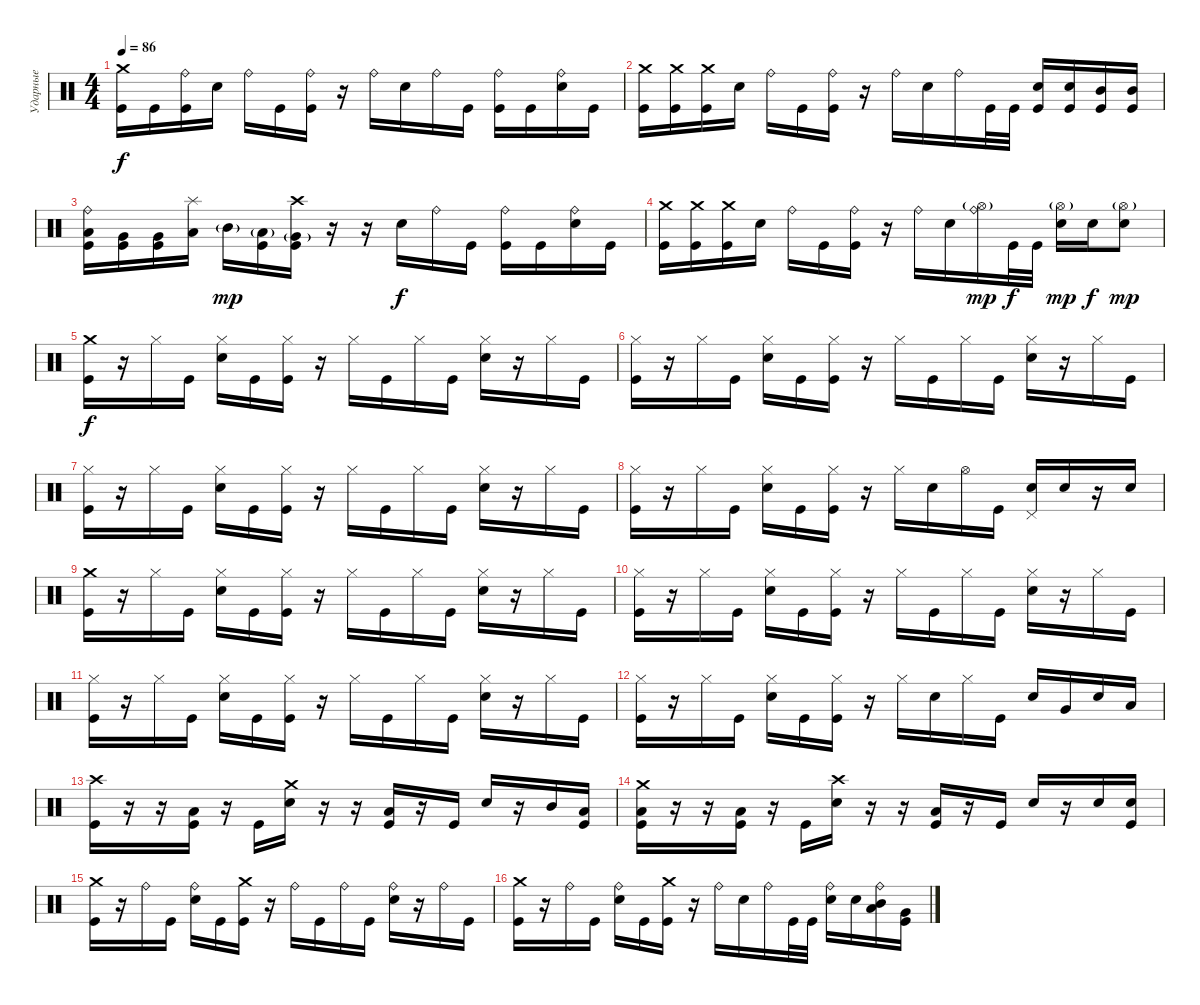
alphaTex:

\track ("Ударные" "Ударные") {instrument percussion}
\staff {score}
\articulation defaults
\ts (4 4)
\tempo 86
\clef neutral
\ks c
("Crash medium (hit)" "Kick (hit)").16{dy f} "Kick (hit)".16 ("Ride (bell)" "Kick (hit)").16 "Snare (hit) 2".16 "Ride (bell)".16 "Kick (hit)".16 ("Ride (bell)" "Kick (hit)").16 r.16 "Ride (bell)".16 "Snare (hit) 2".16 "Ride (bell)".16 "Kick (hit)".16 ("Ride (bell)" "Kick (hit)").16 "Kick (hit)".16 ("Ride (bell)" "Snare (hit) 2").16 "Kick (hit)".16 |
("Crash medium (hit)" "Kick (hit)").16 ("Crash medium (hit)" "Kick (hit)").16 ("Crash medium (hit)" "Kick (hit)").16 "Snare (hit) 2".16 "Ride (bell)".16 "Kick (hit)".16 ("Ride (bell)" "Kick (hit)").16 r.16 "Ride (bell)".16 "Snare (hit) 2".16 "Ride (bell)".16 "Kick (hit)".32 "Kick (hit)".32 ("Snare (hit) 2" "Kick (hit)").16 ("Snare (hit) 2" "Kick (hit)").16 ("Mid Tom (hit)" "Kick (hit)").16 ("Mid Tom (hit)" "Kick (hit)").16 |
("Ride (bell)" "Low Tom (hit)" "Kick (hit)").16 ("Very Low Tom (hit)" "Kick (hit)").16 ("Very Low Tom (hit)" "Kick (hit)").16 ("Splash (hit)" "Low Floor Tom (hit)").16 "Mid Tom (hit)"{g}.16{dy mp} ("Low Tom (hit)"{g} "Kick (hit)").16 ("Crash high (hit)" "Very Low Tom (hit)"{g} "Kick (hit)").16 r.16 r.16 "Snare (hit) 2".16{dy f} "Ride (bell)".16 "Kick (hit)".16 ("Ride (bell)" "Kick (hit)").16 "Kick (hit)".16 ("Ride (bell)" "Snare (hit) 2").16 "Kick (hit)".16 |
("Crash medium (hit)" "Kick (hit)").16 ("Crash medium (hit)" "Kick (hit)").16 ("Crash medium (hit)" "Kick (hit)").16 "Snare (hit) 2".16 "Ride (bell)".16 "Kick (hit)".16 ("Ride (bell)" "Kick (hit)").16 r.16 "Ride (bell)".16 "Snare (hit) 2".16 ("Ride (bell)" "Hi-Hat (open)"{g}).16{dy mp} "Kick (hit)".32{dy f} "Kick (hit)".32 ("Hi-Hat (open)"{g} "Snare (hit) 2").16{dy mp} "Snare (hit) 2".16{dy f} ("Hi-Hat (open)"{g} "Snare (hit) 2").8{dy mp} |
("Crash medium (hit)" "Kick (hit)").16{dy f} r.16 "Hi-Hat (closed)".16 "Kick (hit)".16 ("Hi-Hat (closed)" "Snare (hit) 2").16 "Kick (hit)".16 ("Hi-Hat (closed)" "Kick (hit)").16 r.16 "Hi-Hat (closed)".16 "Kick (hit)".16 "Hi-Hat (closed)".16 "Kick (hit)".16 ("Hi-Hat (closed)" "Snare (hit) 2").16 r.16 "Hi-Hat (closed)".16 "Kick (hit)".16 |
("Hi-Hat (closed)" "Kick (hit)").16 r.16 "Hi-Hat (closed)".16 "Kick (hit)".16 ("Hi-Hat (closed)" "Snare (hit) 2").16 "Kick (hit)".16 ("Hi-Hat (closed)" "Kick (hit)").16 r.16 "Hi-Hat (closed)".16 "Kick (hit)".16 "Hi-Hat (closed)".16 "Kick (hit)".16 ("Hi-Hat (closed)" "Snare (hit) 2").16 r.16 "Hi-Hat (closed)".16 "Kick (hit)".16 |
("Hi-Hat (closed)" "Kick (hit)").16 r.16 "Hi-Hat (closed)".16 "Kick (hit)".16 ("Hi-Hat (closed)" "Snare (hit) 2").16 "Kick (hit)".16 ("Hi-Hat (closed)" "Kick (hit)").16 r.16 "Hi-Hat (closed)".16 "Kick (hit)".16 "Hi-Hat (closed)".16 "Kick (hit)".16 ("Hi-Hat (closed)" "Snare (hit) 2").16 r.16 "Hi-Hat (closed)".16 "Kick (hit)".16 |
("Hi-Hat (closed)" "Kick (hit)").16 r.16 "Hi-Hat (closed)".16 "Kick (hit)".16 ("Hi-Hat (closed)" "Snare (hit) 2").16 "Kick (hit)".16 ("Hi-Hat (closed)" "Kick (hit)").16 r.16 "Hi-Hat (closed)".16 "Snare (hit) 2".16 "Hi-Hat (open)".16 "Kick (hit)".16 ("Pedal Hi-Hat (hit)" "Snare (hit) 2").16 "Snare (hit) 2".16 r.16 "Snare (hit) 2".16 |
("Crash medium (hit)" "Kick (hit)").16 r.16 "Hi-Hat (closed)".16 "Kick (hit)".16 ("Hi-Hat (closed)" "Snare (hit) 2").16 "Kick (hit)".16 ("Hi-Hat (closed)" "Kick (hit)").16 r.16 "Hi-Hat (closed)".16 "Kick (hit)".16 "Hi-Hat (closed)".16 "Kick (hit)".16 ("Hi-Hat (closed)" "Snare (hit) 2").16 r.16 "Hi-Hat (closed)".16 "Kick (hit)".16 |
("Hi-Hat (closed)" "Kick (hit)").16 r.16 "Hi-Hat (closed)".16 "Kick (hit)".16 ("Hi-Hat (closed)" "Snare (hit) 2").16 "Kick (hit)".16 ("Hi-Hat (closed)" "Kick (hit)").16 r.16 "Hi-Hat (closed)".16 "Kick (hit)".16 "Hi-Hat (closed)".16 "Kick (hit)".16 ("Hi-Hat (closed)" "Snare (hit) 2").16 r.16 "Hi-Hat (closed)".16 "Kick (hit)".16 |
("Hi-Hat (closed)" "Kick (hit)").16 r.16 "Hi-Hat (closed)".16 "Kick (hit)".16 ("Hi-Hat (closed)" "Snare (hit) 2").16 "Kick (hit)".16 ("Hi-Hat (closed)" "Kick (hit)").16 r.16 "Hi-Hat (closed)".16 "Kick (hit)".16 "Hi-Hat (closed)".16 "Kick (hit)".16 ("Hi-Hat (closed)" "Snare (hit) 2").16 r.16 "Hi-Hat (closed)".16 "Kick (hit)".16 |
("Hi-Hat (closed)" "Kick (hit)").16 r.16 "Hi-Hat (closed)".16 "Kick (hit)".16 ("Hi-Hat (closed)" "Snare (hit) 2").16 "Kick (hit)".16 ("Hi-Hat (closed)" "Kick (hit)").16 r.16 "Hi-Hat (closed)".16 "Snare (hit) 2".16 "Hi-Hat (closed)".16 "Kick (hit)".16 "Snare (hit) 2".16 "Very Low Tom (hit)".16 "Snare (hit) 2".16 "Low Floor Tom (hit)".16 |
("Crash high (hit)" "Kick (hit)").16 r.16 r.16 ("Low Floor Tom (hit)" "Kick (hit)").16 r.16 "Kick (hit)".16 ("Crash medium (hit)" "Snare (hit) 2").16 r.16 r.16 ("Low Floor Tom (hit)" "Kick (hit)").16 r.16 "Kick (hit)".16 "Snare (hit) 2".16 r.16 "Mid Tom (hit)".16 ("Low Tom (hit)" "Kick (hit)").16 |
("Crash medium (hit)" "Low Floor Tom (hit)" "Kick (hit)").16 r.16 r.16 ("Low Floor Tom (hit)" "Kick (hit)").16 r.16 "Kick (hit)".16 ("Crash high (hit)" "Snare (hit) 2").16 r.16 r.16 ("Low Floor Tom (hit)" "Kick (hit)").16 r.16 "Kick (hit)".16 "Snare (hit) 2".16 r.16 "Snare (hit) 2".16 ("Snare (hit) 2" "Kick (hit)").16 |
("Crash medium (hit)" "Kick (hit)").16 r.16 "Ride (bell)".16 "Kick (hit)".16 ("Ride (bell)" "Snare (hit) 2").16 "Kick (hit)".16 ("Crash medium (hit)" "Kick (hit)").16 r.16 "Ride (bell)".16 "Kick (hit)".16 "Ride (bell)".16 "Kick (hit)".16 ("Ride (bell)" "Snare (hit) 2").16 r.16 "Ride (bell)".16 "Kick (hit)".16 |
("Crash medium (hit)" "Kick (hit)").16 r.16 "Ride (bell)".16 "Kick (hit)".16 ("Ride (bell)" "Snare (hit) 2").16 "Kick (hit)".16 ("Crash medium (hit)" "Kick (hit)").16 r.16 "Ride (bell)".16 "Snare (hit) 2".16 "Ride (bell)".16 "Kick (hit)".32 "Kick (hit)".32 ("Ride (bell)" "Snare (hit) 2").16 "Snare (hit) 2".16 ("Ride (bell)" "Low Floor Tom (hit)" "Mid Tom (hit)").16 ("Very Low Tom (hit)" "Kick (hit)").16
